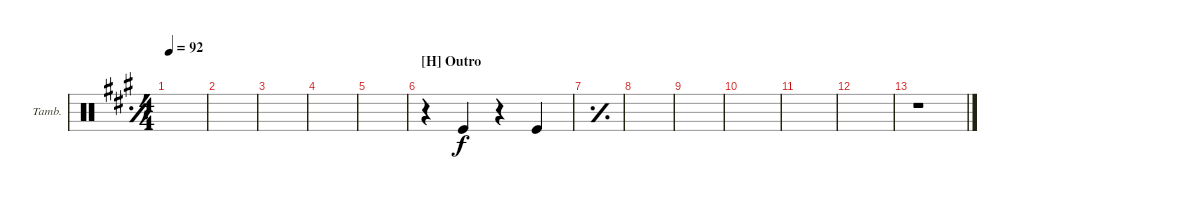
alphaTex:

\defaultSystemsLayout 4
\bracketExtendMode groupsimilarinstruments
\firstSystemTrackNameOrientation horizontal
\otherSystemsTrackNameOrientation horizontal
\track ("Tambourine" "Tamb.") {instrument percussion}
\staff {score}
\articulation defaults
\ts (4 4)
\tempo 92
\clef neutral
\simile simple
\ks a
|
|
|
|
|
\section ("H" "Outro")
r.4 "Kick (hit)".4 r.4 "Kick (hit)".4 |
\simile simple
|
|
|
|
|
|
\simile none
r.1
